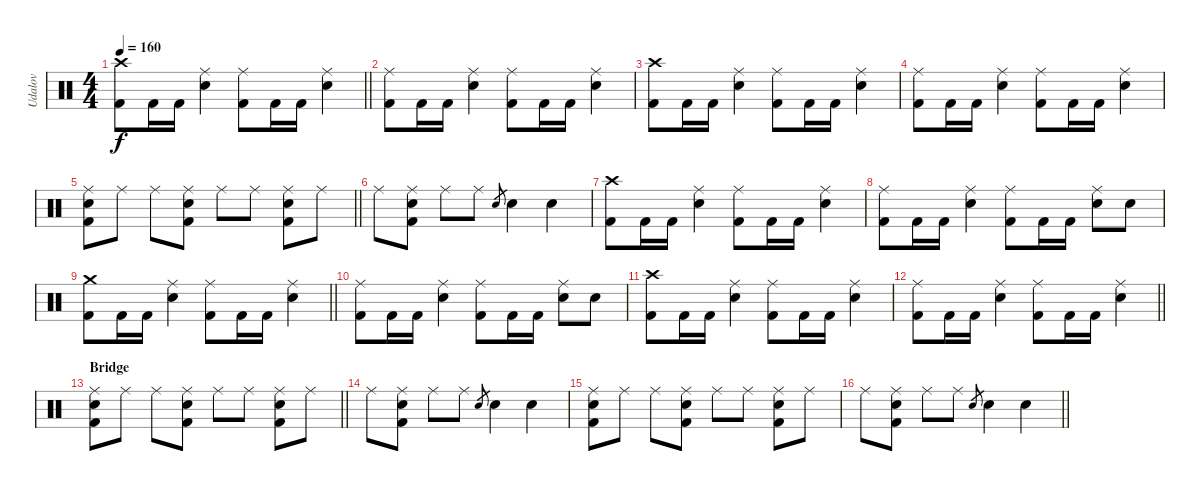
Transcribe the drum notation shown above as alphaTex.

\track ("Udalov" "Udalov") {instrument percussion}
\staff {score}
\articulation defaults
\ts (4 4)
\tempo 160
\clef neutral
\barLineRight lightlight
\ks c
("Kick (hit) 2" "Crash high (hit)").8{dy f} "Kick (hit) 2".16 "Kick (hit) 2".16 ("Snare (hit) 2" "Ride (middle)").4 ("Kick (hit) 2" "Ride (middle)").8 "Kick (hit) 2".16 "Kick (hit) 2".16 ("Snare (hit) 2" "Ride (middle)").4 |
("Kick (hit) 2" "Ride (middle)").8 "Kick (hit) 2".16 "Kick (hit) 2".16 ("Snare (hit) 2" "Ride (middle)").4 ("Kick (hit) 2" "Ride (middle)").8 "Kick (hit) 2".16 "Kick (hit) 2".16 ("Snare (hit) 2" "Ride (middle)").4 |
("Kick (hit) 2" "Crash high (hit)").8 "Kick (hit) 2".16 "Kick (hit) 2".16 ("Snare (hit) 2" "Ride (middle)").4 ("Kick (hit) 2" "Ride (middle)").8 "Kick (hit) 2".16 "Kick (hit) 2".16 ("Snare (hit) 2" "Ride (middle)").4 |
("Kick (hit) 2" "Ride (middle)").8 "Kick (hit) 2".16 "Kick (hit) 2".16 ("Snare (hit) 2" "Ride (middle)").4 ("Kick (hit) 2" "Ride (middle)").8 "Kick (hit) 2".16 "Kick (hit) 2".16 ("Snare (hit) 2" "Ride (middle)").4 |
\barLineRight lightlight
("Snare (hit) 2" "Ride (middle)" "Kick (hit) 2").8 "Ride (middle)".8 "Ride (middle)".8 ("Snare (hit) 2" "Ride (middle)" "Kick (hit) 2").8 "Ride (middle)".8 "Ride (middle)".8 ("Snare (hit) 2" "Ride (middle)" "Kick (hit) 2").8 "Ride (middle)".8 |
"Ride (middle)".8 ("Snare (hit) 2" "Ride (middle)" "Kick (hit) 2").8 "Ride (middle)".8 "Ride (middle)".8 "Snare (hit) 2".8{gr} "Snare (hit) 2".4 "Snare (hit) 2".4 |
("Kick (hit) 2" "Crash high (hit)").8 "Kick (hit) 2".16 "Kick (hit) 2".16 ("Snare (hit) 2" "Ride (middle)").4 ("Kick (hit) 2" "Ride (middle)").8 "Kick (hit) 2".16 "Kick (hit) 2".16 ("Snare (hit) 2" "Ride (middle)").4 |
("Kick (hit) 2" "Ride (middle)").8 "Kick (hit) 2".16 "Kick (hit) 2".16 ("Snare (hit) 2" "Ride (middle)").4 ("Kick (hit) 2" "Ride (middle)").8 "Kick (hit) 2".16 "Kick (hit) 2".16 ("Snare (hit) 2" "Ride (middle)").8 "Snare (hit) 2".8 |
\barLineRight lightlight
("Kick (hit) 2" "Crash medium (hit)").8 "Kick (hit) 2".16 "Kick (hit) 2".16 ("Snare (hit) 2" "Ride (middle)").4 ("Kick (hit) 2" "Ride (middle)").8 "Kick (hit) 2".16 "Kick (hit) 2".16 ("Snare (hit) 2" "Ride (middle)").4 |
("Kick (hit) 2" "Ride (middle)").8 "Kick (hit) 2".16 "Kick (hit) 2".16 ("Snare (hit) 2" "Ride (middle)").4 ("Kick (hit) 2" "Ride (middle)").8 "Kick (hit) 2".16 "Kick (hit) 2".16 ("Snare (hit) 2" "Ride (middle)").8 "Snare (hit) 2".8 |
("Kick (hit) 2" "Crash high (hit)").8 "Kick (hit) 2".16 "Kick (hit) 2".16 ("Snare (hit) 2" "Ride (middle)").4 ("Kick (hit) 2" "Ride (middle)").8 "Kick (hit) 2".16 "Kick (hit) 2".16 ("Snare (hit) 2" "Ride (middle)").4 |
\barLineRight lightlight
("Kick (hit) 2" "Ride (middle)").8 "Kick (hit) 2".16 "Kick (hit) 2".16 ("Snare (hit) 2" "Ride (middle)").4 ("Kick (hit) 2" "Ride (middle)").8 "Kick (hit) 2".16 "Kick (hit) 2".16 ("Snare (hit) 2" "Ride (middle)").4 |
\section ("" "Bridge")
\barLineRight lightlight
("Snare (hit) 2" "Ride (middle)" "Kick (hit) 2").8 "Ride (middle)".8 "Ride (middle)".8 ("Snare (hit) 2" "Ride (middle)" "Kick (hit) 2").8 "Ride (middle)".8 "Ride (middle)".8 ("Snare (hit) 2" "Ride (middle)" "Kick (hit) 2").8 "Ride (middle)".8 |
"Ride (middle)".8 ("Snare (hit) 2" "Ride (middle)" "Kick (hit) 2").8 "Ride (middle)".8 "Ride (middle)".8 "Snare (hit) 2".8{gr} "Snare (hit) 2".4 "Snare (hit) 2".4 |
("Snare (hit) 2" "Ride (middle)" "Kick (hit) 2").8 "Ride (middle)".8 "Ride (middle)".8 ("Snare (hit) 2" "Ride (middle)" "Kick (hit) 2").8 "Ride (middle)".8 "Ride (middle)".8 ("Snare (hit) 2" "Ride (middle)" "Kick (hit) 2").8 "Ride (middle)".8 |
\barLineRight lightlight "Ride (middle)".8
("Snare (hit) 2" "Ride (middle)" "Kick (hit) 2").8 "Ride (middle)".8 "Ride (middle)".8 "Snare (hit) 2".8{gr} "Snare (hit) 2".4 "Snare (hit) 2".4
